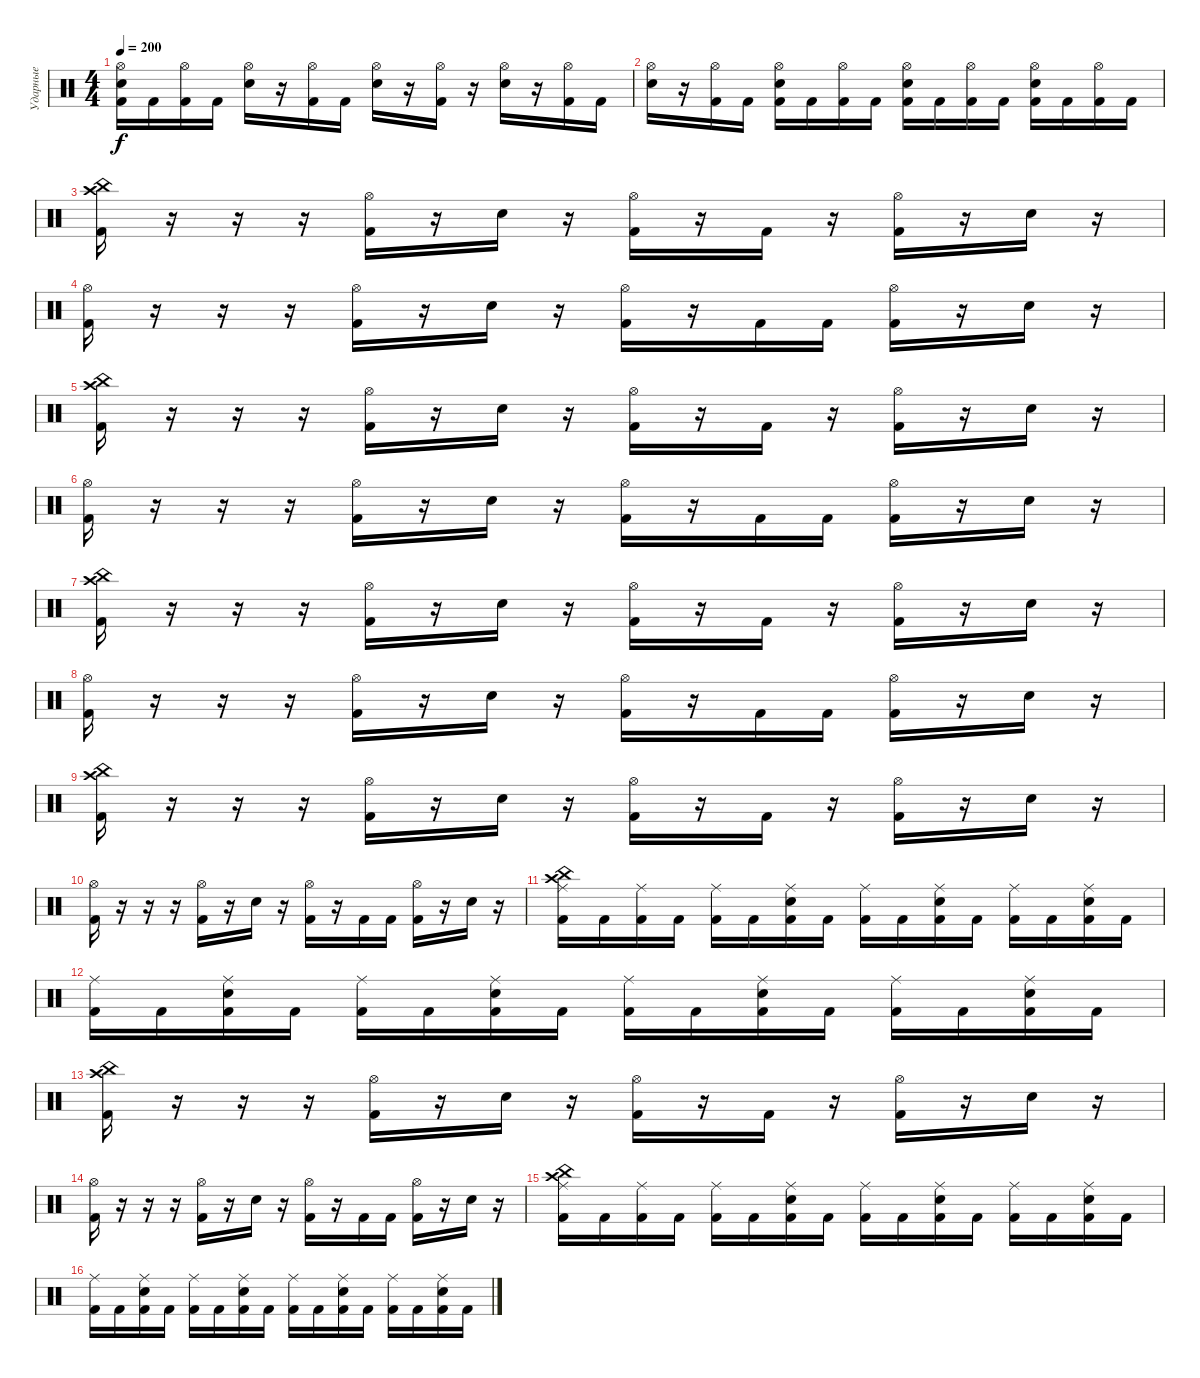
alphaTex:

\track ("Ударные" "Ударные") {instrument percussion}
\staff {score}
\articulation defaults
\ts (4 4)
\tempo 200
\clef neutral
\ks c
("Electric Snare (hit)" "Hi-Hat (open)" "Kick (hit) 2").16{dy f} "Kick (hit) 2".16 ("Kick (hit) 2" "Hi-Hat (open)").16 "Kick (hit) 2".16 ("Electric Snare (hit)" "Hi-Hat (open)").16 r.16 ("Kick (hit) 2" "Hi-Hat (open)").16 "Kick (hit) 2".16 ("Electric Snare (hit)" "Hi-Hat (open)").16 r.16 ("Kick (hit) 2" "Hi-Hat (open)").16 r.16 ("Electric Snare (hit)" "Hi-Hat (open)").16 r.16 ("Kick (hit) 2" "Hi-Hat (open)").16 "Kick (hit) 2".16 |
("Electric Snare (hit)" "Hi-Hat (open)").16 r.16 ("Kick (hit) 2" "Hi-Hat (open)").16 "Kick (hit) 2".16 ("Electric Snare (hit)" "Kick (hit) 2" "Hi-Hat (open)").16 "Kick (hit) 2".16 ("Kick (hit) 2" "Hi-Hat (open)").16 "Kick (hit) 2".16 ("Electric Snare (hit)" "Kick (hit) 2" "Hi-Hat (open)").16 "Kick (hit) 2".16 ("Kick (hit) 2" "Hi-Hat (open)").16 "Kick (hit) 2".16 ("Electric Snare (hit)" "Kick (hit) 2" "Hi-Hat (open)").16 "Kick (hit) 2".16 ("Kick (hit) 2" "Hi-Hat (open)").16 "Kick (hit) 2".16 |
("Kick (hit) 2" "China (hit)" "Crash high (hit)").16 r.16 r.16 r.16 ("Kick (hit) 2" "Hi-Hat (open)").16 r.16 "Electric Snare (hit)".16 r.16 ("Kick (hit) 2" "Hi-Hat (open)").16 r.16 "Kick (hit) 2".16 r.16 ("Kick (hit) 2" "Hi-Hat (open)").16 r.16 "Electric Snare (hit)".16 r.16 |
("Kick (hit) 2" "Hi-Hat (open)").16 r.16 r.16 r.16 ("Kick (hit) 2" "Hi-Hat (open)").16 r.16 "Electric Snare (hit)".16 r.16 ("Kick (hit) 2" "Hi-Hat (open)").16 r.16 "Kick (hit) 2".16 "Kick (hit) 2".16 ("Kick (hit) 2" "Hi-Hat (open)").16 r.16 "Electric Snare (hit)".16 r.16 |
("Kick (hit) 2" "China (hit)" "Crash high (hit)").16 r.16 r.16 r.16 ("Kick (hit) 2" "Hi-Hat (open)").16 r.16 "Electric Snare (hit)".16 r.16 ("Kick (hit) 2" "Hi-Hat (open)").16 r.16 "Kick (hit) 2".16 r.16 ("Kick (hit) 2" "Hi-Hat (open)").16 r.16 "Electric Snare (hit)".16 r.16 |
("Kick (hit) 2" "Hi-Hat (open)").16 r.16 r.16 r.16 ("Kick (hit) 2" "Hi-Hat (open)").16 r.16 "Electric Snare (hit)".16 r.16 ("Kick (hit) 2" "Hi-Hat (open)").16 r.16 "Kick (hit) 2".16 "Kick (hit) 2".16 ("Kick (hit) 2" "Hi-Hat (open)").16 r.16 "Electric Snare (hit)".16 r.16 |
("Kick (hit) 2" "China (hit)" "Crash high (hit)").16 r.16 r.16 r.16 ("Kick (hit) 2" "Hi-Hat (open)").16 r.16 "Electric Snare (hit)".16 r.16 ("Kick (hit) 2" "Hi-Hat (open)").16 r.16 "Kick (hit) 2".16 r.16 ("Kick (hit) 2" "Hi-Hat (open)").16 r.16 "Electric Snare (hit)".16 r.16 |
("Kick (hit) 2" "Hi-Hat (open)").16 r.16 r.16 r.16 ("Kick (hit) 2" "Hi-Hat (open)").16 r.16 "Electric Snare (hit)".16 r.16 ("Kick (hit) 2" "Hi-Hat (open)").16 r.16 "Kick (hit) 2".16 "Kick (hit) 2".16 ("Kick (hit) 2" "Hi-Hat (open)").16 r.16 "Electric Snare (hit)".16 r.16 |
("Kick (hit) 2" "China (hit)" "Crash high (hit)").16 r.16 r.16 r.16 ("Kick (hit) 2" "Hi-Hat (open)").16 r.16 "Electric Snare (hit)".16 r.16 ("Kick (hit) 2" "Hi-Hat (open)").16 r.16 "Kick (hit) 2".16 r.16 ("Kick (hit) 2" "Hi-Hat (open)").16 r.16 "Electric Snare (hit)".16 r.16 |
("Kick (hit) 2" "Hi-Hat (open)").16 r.16 r.16 r.16 ("Kick (hit) 2" "Hi-Hat (open)").16 r.16 "Electric Snare (hit)".16 r.16 ("Kick (hit) 2" "Hi-Hat (open)").16 r.16 "Kick (hit) 2".16 "Kick (hit) 2".16 ("Kick (hit) 2" "Hi-Hat (open)").16 r.16 "Electric Snare (hit)".16 r.16 |
("Kick (hit) 2" "Ride (middle)" "Crash high (hit)" "China (hit)").16 "Kick (hit) 2".16 ("Kick (hit) 2" "Ride (middle)").16 "Kick (hit) 2".16 ("Kick (hit) 2" "Ride (middle)").16 "Kick (hit) 2".16 ("Kick (hit) 2" "Electric Snare (hit)" "Ride (middle)").16 "Kick (hit) 2".16 ("Kick (hit) 2" "Ride (middle)").16 "Kick (hit) 2".16 ("Kick (hit) 2" "Electric Snare (hit)" "Ride (middle)").16 "Kick (hit) 2".16 ("Kick (hit) 2" "Ride (middle)").16 "Kick (hit) 2".16 ("Kick (hit) 2" "Electric Snare (hit)" "Ride (middle)").16 "Kick (hit) 2".16 |
("Kick (hit) 2" "Ride (middle)").16 "Kick (hit) 2".16 ("Kick (hit) 2" "Electric Snare (hit)" "Ride (middle)").16 "Kick (hit) 2".16 ("Kick (hit) 2" "Ride (middle)").16 "Kick (hit) 2".16 ("Kick (hit) 2" "Electric Snare (hit)" "Ride (middle)").16 "Kick (hit) 2".16 ("Kick (hit) 2" "Ride (middle)").16 "Kick (hit) 2".16 ("Kick (hit) 2" "Electric Snare (hit)" "Ride (middle)").16 "Kick (hit) 2".16 ("Kick (hit) 2" "Ride (middle)").16 "Kick (hit) 2".16 ("Kick (hit) 2" "Electric Snare (hit)" "Ride (middle)").16 "Kick (hit) 2".16 |
("Kick (hit) 2" "China (hit)" "Crash high (hit)").16 r.16 r.16 r.16 ("Kick (hit) 2" "Hi-Hat (open)").16 r.16 "Electric Snare (hit)".16 r.16 ("Kick (hit) 2" "Hi-Hat (open)").16 r.16 "Kick (hit) 2".16 r.16 ("Kick (hit) 2" "Hi-Hat (open)").16 r.16 "Electric Snare (hit)".16 r.16 |
("Kick (hit) 2" "Hi-Hat (open)").16 r.16 r.16 r.16 ("Kick (hit) 2" "Hi-Hat (open)").16 r.16 "Electric Snare (hit)".16 r.16 ("Kick (hit) 2" "Hi-Hat (open)").16 r.16 "Kick (hit) 2".16 "Kick (hit) 2".16 ("Kick (hit) 2" "Hi-Hat (open)").16 r.16 "Electric Snare (hit)".16 r.16 |
("Kick (hit) 2" "Ride (middle)" "Crash high (hit)" "China (hit)").16 "Kick (hit) 2".16 ("Kick (hit) 2" "Ride (middle)").16 "Kick (hit) 2".16 ("Kick (hit) 2" "Ride (middle)").16 "Kick (hit) 2".16 ("Kick (hit) 2" "Electric Snare (hit)" "Ride (middle)").16 "Kick (hit) 2".16 ("Kick (hit) 2" "Ride (middle)").16 "Kick (hit) 2".16 ("Kick (hit) 2" "Electric Snare (hit)" "Ride (middle)").16 "Kick (hit) 2".16 ("Kick (hit) 2" "Ride (middle)").16 "Kick (hit) 2".16 ("Kick (hit) 2" "Electric Snare (hit)" "Ride (middle)").16 "Kick (hit) 2".16 |
("Kick (hit) 2" "Ride (middle)").16 "Kick (hit) 2".16 ("Kick (hit) 2" "Electric Snare (hit)" "Ride (middle)").16 "Kick (hit) 2".16 ("Kick (hit) 2" "Ride (middle)").16 "Kick (hit) 2".16 ("Kick (hit) 2" "Electric Snare (hit)" "Ride (middle)").16 "Kick (hit) 2".16 ("Kick (hit) 2" "Ride (middle)").16 "Kick (hit) 2".16 ("Kick (hit) 2" "Electric Snare (hit)" "Ride (middle)").16 "Kick (hit) 2".16 ("Kick (hit) 2" "Ride (middle)").16 "Kick (hit) 2".16 ("Kick (hit) 2" "Electric Snare (hit)" "Ride (middle)").16 "Kick (hit) 2".16
